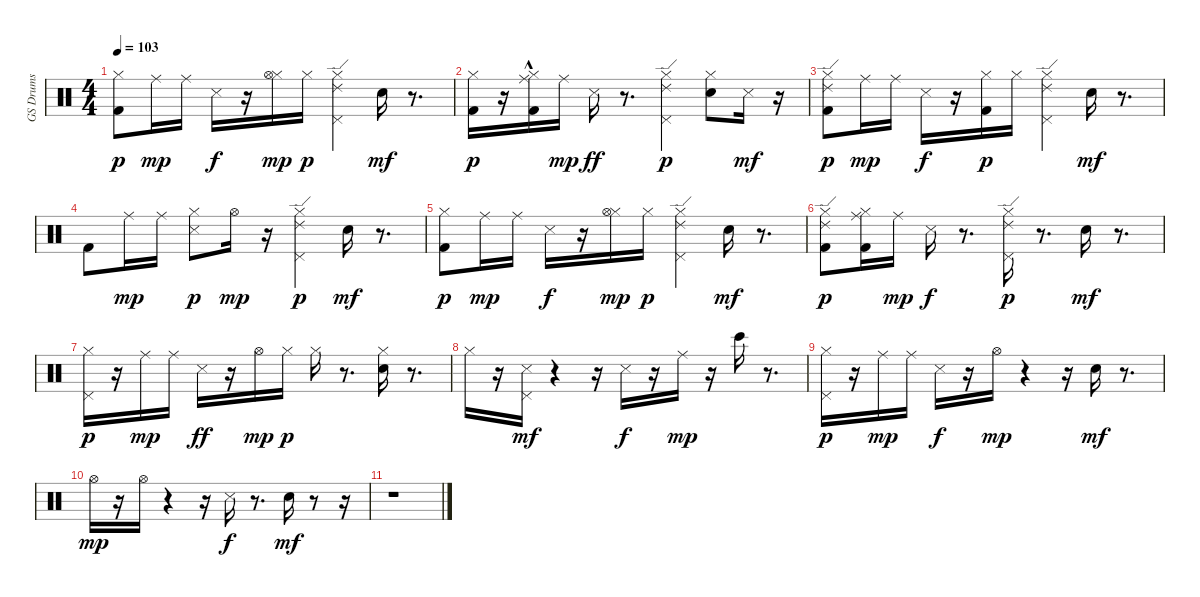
\track ("GS Drums" "GS Drums") {instrument percussion}
\staff {score}
\articulation defaults
\ts (4 4)
\tempo 103
\clef neutral
\ks c
("Kick (hit) 2" "Hi-Hat (closed)").8{dy p} "Ride (middle)".16{dy mp} "Ride (middle)".16 "Snare (side stick) 3".16{dy f} r.16 ("Hi-Hat (closed)" "Hi-Hat (open)").16{dy mp} "Hi-Hat (closed)".16{dy p} ("Pedal Hi-Hat (hit)" "Ride (edge) 2" "Hi-Hat (closed)").4 "Snare (hit) 2".16{dy mf} r.8{d} |
("Kick (hit) 2" "Hi-Hat (closed)").16{dy p} r.16 ("Ride (middle)" "Kick (hit) 2"{hac} "Hi-Hat (closed)").16 "Ride (middle)".16{dy mp} "Snare (side stick) 3".16{dy ff} r.8{d} ("Pedal Hi-Hat (hit)" "Ride (edge) 2" "Hi-Hat (closed)").4{dy p} ("Snare (hit) 2" "Hi-Hat (closed)").8 "Snare (side stick) 3".16{dy mf} r.16 |
("Ride (edge) 2" "Kick (hit) 2" "Hi-Hat (closed)").8{dy p} "Ride (middle)".16{dy mp} "Ride (middle)".16 "Snare (side stick) 3".16{dy f} r.16 ("Kick (hit) 2" "Hi-Hat (closed)").16{dy p} "Hi-Hat (closed)".16 ("Pedal Hi-Hat (hit)" "Ride (edge) 2" "Hi-Hat (closed)").4 "Snare (hit) 2".16{dy mf} r.8{d} |
"Kick (hit) 2".8 "Ride (middle)".16{dy mp} "Ride (middle)".16 ("Hi-Hat (closed)" "Snare (side stick) 3").8{dy p} "Hi-Hat (open)".16{dy mp} r.16 ("Pedal Hi-Hat (hit)" "Ride (edge) 2" "Hi-Hat (closed)").4{dy p} "Snare (hit) 2".16{dy mf} r.8{d} |
("Kick (hit) 2" "Hi-Hat (closed)").8{dy p} "Ride (middle)".16{dy mp} "Ride (middle)".16 "Snare (side stick) 3".16{dy f} r.16 ("Hi-Hat (closed)" "Hi-Hat (open)").16{dy mp} "Hi-Hat (closed)".16{dy p} ("Pedal Hi-Hat (hit)" "Ride (edge) 2" "Hi-Hat (closed)").4 "Snare (hit) 2".16{dy mf} r.8{d} |
("Ride (edge) 2" "Kick (hit) 2" "Hi-Hat (closed)").8{dy p} ("Ride (middle)" "Kick (hit) 2" "Hi-Hat (closed)").16 "Ride (middle)".16{dy mp} "Snare (side stick) 3".16{dy f} r.8{d} ("Pedal Hi-Hat (hit)" "Ride (edge) 2" "Hi-Hat (closed)").16{dy p} r.8{d} "Snare (hit) 2".16{dy mf} r.8{d} |
("Pedal Hi-Hat (hit)" "Hi-Hat (closed)").16{dy p} r.16 "Ride (middle)".16{dy mp} "Ride (middle)".16 "Snare (side stick) 3".16{dy ff} r.16 "Hi-Hat (open)".16{dy mp} "Hi-Hat (closed)".16{dy p} "Hi-Hat (closed)".16 r.8{d} ("Snare (hit) 2" "Hi-Hat (closed)").16 r.8{d} |
"Hi-Hat (closed)".16 r.16 ("Pedal Hi-Hat (hit)" "Snare (side stick) 3").16{dy mf} r.4 r.16 "Snare (side stick) 3".16{dy f} r.16 "Ride (middle)".16{dy mp} r.16 "Bongo High (hit)".16 r.8{d} |
("Pedal Hi-Hat (hit)" "Hi-Hat (closed)").16{dy p} r.16 "Ride (middle)".16{dy mp} "Ride (middle)".16 "Snare (side stick) 3".16{dy f} r.16 "Hi-Hat (open)".16{dy mp} r.4 r.16 "Snare (hit) 2".16{dy mf} r.8{d} |
"Hi-Hat (open)".16{dy mp} r.16 "Hi-Hat (open)".16 r.4 r.16 "Snare (side stick) 3".16{dy f} r.8{d} "Snare (hit) 2".16{dy mf} r.8 r.16 |
r.1
